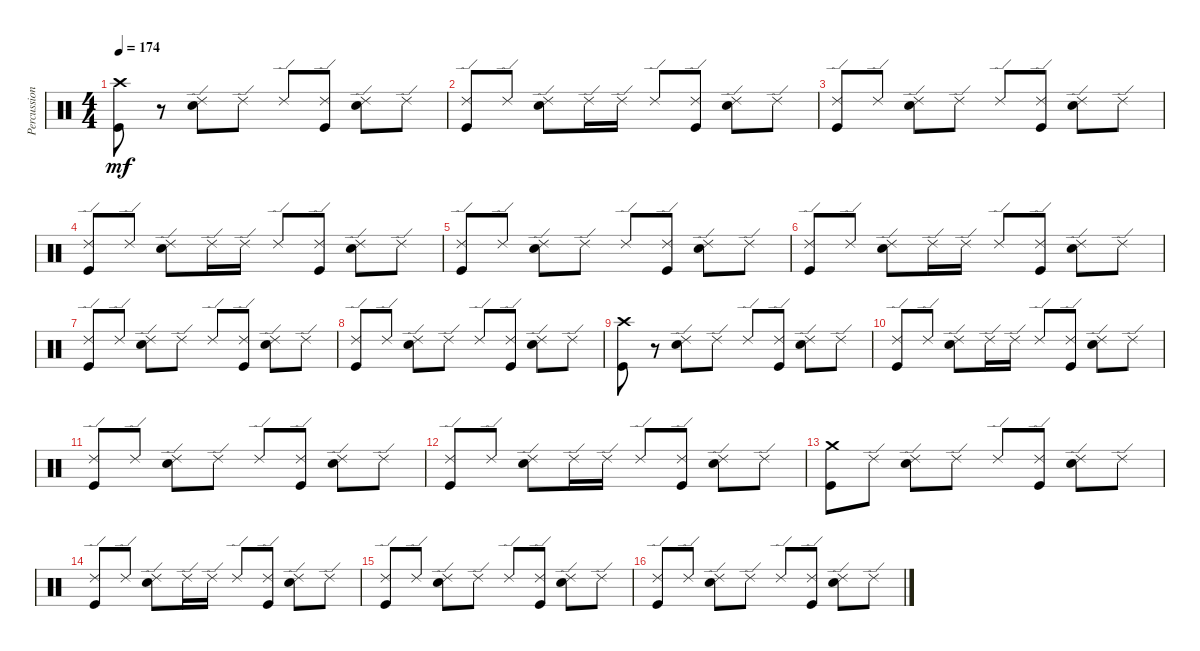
\track ("Percussion" "Percussion") {instrument percussion}
\staff {score}
\articulation defaults
\ts (4 4)
\tempo 174
\clef neutral
\ks c
("Crash high (hit)" "Kick (hit)").8{dy mf volume 16} r.8 ("Ride (edge) 2" "Electric Snare (hit)").8 "Ride (edge) 2".8 "Ride (edge) 2".8 ("Ride (edge) 2" "Kick (hit)").8 ("Ride (edge) 2" "Electric Snare (hit)").8 "Ride (edge) 2".8 |
("Ride (edge) 2" "Kick (hit)").8 "Ride (edge) 2".8 ("Ride (edge) 2" "Electric Snare (hit)").8 "Ride (edge) 2".16 "Ride (edge) 2".16 "Ride (edge) 2".8 ("Ride (edge) 2" "Kick (hit)").8 ("Ride (edge) 2" "Electric Snare (hit)").8 "Ride (edge) 2".8 |
("Ride (edge) 2" "Kick (hit)").8 "Ride (edge) 2".8 ("Ride (edge) 2" "Electric Snare (hit)").8 "Ride (edge) 2".8 "Ride (edge) 2".8 ("Ride (edge) 2" "Kick (hit)").8 ("Ride (edge) 2" "Electric Snare (hit)").8 "Ride (edge) 2".8 |
("Ride (edge) 2" "Kick (hit)").8 "Ride (edge) 2".8 ("Ride (edge) 2" "Electric Snare (hit)").8 "Ride (edge) 2".16 "Ride (edge) 2".16 "Ride (edge) 2".8 ("Ride (edge) 2" "Kick (hit)").8 ("Ride (edge) 2" "Electric Snare (hit)").8 "Ride (edge) 2".8 |
("Ride (edge) 2" "Kick (hit)").8 "Ride (edge) 2".8 ("Ride (edge) 2" "Electric Snare (hit)").8 "Ride (edge) 2".8 "Ride (edge) 2".8 ("Ride (edge) 2" "Kick (hit)").8 ("Ride (edge) 2" "Electric Snare (hit)").8 "Ride (edge) 2".8 |
("Ride (edge) 2" "Kick (hit)").8 "Ride (edge) 2".8 ("Ride (edge) 2" "Electric Snare (hit)").8 "Ride (edge) 2".16 "Ride (edge) 2".16 "Ride (edge) 2".8 ("Ride (edge) 2" "Kick (hit)").8 ("Ride (edge) 2" "Electric Snare (hit)").8 "Ride (edge) 2".8 |
("Ride (edge) 2" "Kick (hit)").8 "Ride (edge) 2".8 ("Ride (edge) 2" "Electric Snare (hit)").8 "Ride (edge) 2".8 "Ride (edge) 2".8 ("Ride (edge) 2" "Kick (hit)").8 ("Ride (edge) 2" "Electric Snare (hit)").8 "Ride (edge) 2".8 |
("Ride (edge) 2" "Kick (hit)").8 "Ride (edge) 2".8 ("Ride (edge) 2" "Electric Snare (hit)").8 "Ride (edge) 2".8 "Ride (edge) 2".8 ("Ride (edge) 2" "Kick (hit)").8 ("Ride (edge) 2" "Electric Snare (hit)").8 "Ride (edge) 2".8 |
("Crash high (hit)" "Kick (hit)").8 r.8 ("Ride (edge) 2" "Electric Snare (hit)").8 "Ride (edge) 2".8 "Ride (edge) 2".8 ("Ride (edge) 2" "Kick (hit)").8 ("Ride (edge) 2" "Electric Snare (hit)").8 "Ride (edge) 2".8 |
("Ride (edge) 2" "Kick (hit)").8 "Ride (edge) 2".8 ("Ride (edge) 2" "Electric Snare (hit)").8 "Ride (edge) 2".16 "Ride (edge) 2".16 "Ride (edge) 2".8 ("Ride (edge) 2" "Kick (hit)").8 ("Ride (edge) 2" "Electric Snare (hit)").8 "Ride (edge) 2".8 |
("Ride (edge) 2" "Kick (hit)").8 "Ride (edge) 2".8 ("Ride (edge) 2" "Electric Snare (hit)").8 "Ride (edge) 2".8 "Ride (edge) 2".8 ("Ride (edge) 2" "Kick (hit)").8 ("Ride (edge) 2" "Electric Snare (hit)").8 "Ride (edge) 2".8 |
("Ride (edge) 2" "Kick (hit)").8 "Ride (edge) 2".8 ("Ride (edge) 2" "Electric Snare (hit)").8 "Ride (edge) 2".16 "Ride (edge) 2".16 "Ride (edge) 2".8 ("Ride (edge) 2" "Kick (hit)").8 ("Ride (edge) 2" "Electric Snare (hit)").8 "Ride (edge) 2".8 |
("Crash medium (hit)" "Kick (hit)").8 "Ride (edge) 2".8 ("Ride (edge) 2" "Electric Snare (hit)").8 "Ride (edge) 2".8 "Ride (edge) 2".8 ("Ride (edge) 2" "Kick (hit)").8 ("Ride (edge) 2" "Electric Snare (hit)").8 "Ride (edge) 2".8 |
("Ride (edge) 2" "Kick (hit)").8 "Ride (edge) 2".8 ("Ride (edge) 2" "Electric Snare (hit)").8 "Ride (edge) 2".16 "Ride (edge) 2".16 "Ride (edge) 2".8 ("Ride (edge) 2" "Kick (hit)").8 ("Ride (edge) 2" "Electric Snare (hit)").8 "Ride (edge) 2".8 |
("Ride (edge) 2" "Kick (hit)").8 "Ride (edge) 2".8 ("Ride (edge) 2" "Electric Snare (hit)").8 "Ride (edge) 2".8 "Ride (edge) 2".8 ("Ride (edge) 2" "Kick (hit)").8 ("Ride (edge) 2" "Electric Snare (hit)").8 "Ride (edge) 2".8 |
("Ride (edge) 2" "Kick (hit)").8 "Ride (edge) 2".8 ("Ride (edge) 2" "Electric Snare (hit)").8 "Ride (edge) 2".8 "Ride (edge) 2".8 ("Ride (edge) 2" "Kick (hit)").8 ("Ride (edge) 2" "Electric Snare (hit)").8 "Ride (edge) 2".8
